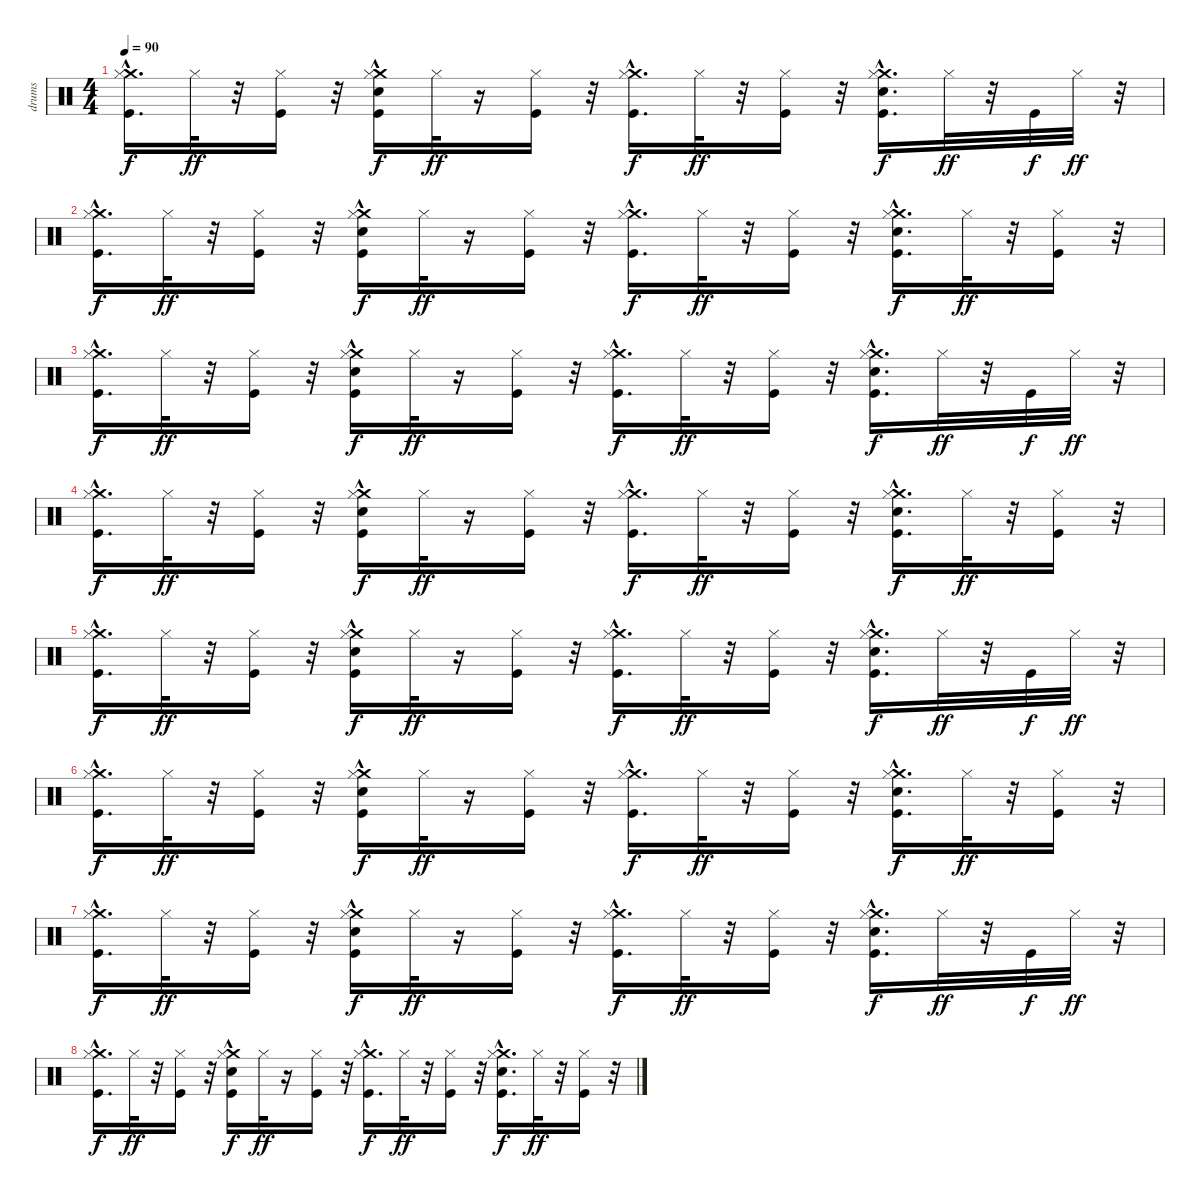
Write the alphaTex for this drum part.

\track ("drums" "drums") {instrument percussion}
\staff {score}
\articulation defaults
\ts (4 4)
\tempo 90
\clef neutral
\ks c
("Kick (hit)" "Crash medium (hit)"{hac} "Hi-Hat (closed)").16{d dy f} "Hi-Hat (closed)".32{dy ff} r.32 ("Kick (hit)" "Hi-Hat (closed)").16 r.32 ("Kick (hit)" "Crash medium (hit)"{hac} "Electric Snare (hit)" "Hi-Hat (closed)").16{dy f} "Hi-Hat (closed)".32{dy ff} r.16 ("Kick (hit)" "Hi-Hat (closed)").16 r.32 ("Kick (hit)" "Crash medium (hit)"{hac} "Hi-Hat (closed)").16{d dy f} "Hi-Hat (closed)".32{dy ff} r.32 ("Kick (hit)" "Hi-Hat (closed)").16 r.32 ("Kick (hit)" "Crash medium (hit)"{hac} "Electric Snare (hit)" "Hi-Hat (closed)").16{d dy f} "Hi-Hat (closed)".32{dy ff} r.32 "Kick (hit)".32{dy f} "Hi-Hat (closed)".32{dy ff} r.32 |
("Kick (hit)" "Crash medium (hit)"{hac} "Hi-Hat (closed)").16{d dy f} "Hi-Hat (closed)".32{dy ff} r.32 ("Kick (hit)" "Hi-Hat (closed)").16 r.32 ("Kick (hit)" "Crash medium (hit)"{hac} "Electric Snare (hit)" "Hi-Hat (closed)").16{dy f} "Hi-Hat (closed)".32{dy ff} r.16 ("Kick (hit)" "Hi-Hat (closed)").16 r.32 ("Kick (hit)" "Crash medium (hit)"{hac} "Hi-Hat (closed)").16{d dy f} "Hi-Hat (closed)".32{dy ff} r.32 ("Kick (hit)" "Hi-Hat (closed)").16 r.32 ("Kick (hit)" "Crash medium (hit)"{hac} "Electric Snare (hit)" "Hi-Hat (closed)").16{d dy f} "Hi-Hat (closed)".32{dy ff} r.32 ("Kick (hit)" "Hi-Hat (closed)").16 r.32 |
("Kick (hit)" "Crash medium (hit)"{hac} "Hi-Hat (closed)").16{d dy f} "Hi-Hat (closed)".32{dy ff} r.32 ("Kick (hit)" "Hi-Hat (closed)").16 r.32 ("Kick (hit)" "Crash medium (hit)"{hac} "Electric Snare (hit)" "Hi-Hat (closed)").16{dy f} "Hi-Hat (closed)".32{dy ff} r.16 ("Kick (hit)" "Hi-Hat (closed)").16 r.32 ("Kick (hit)" "Crash medium (hit)"{hac} "Hi-Hat (closed)").16{d dy f} "Hi-Hat (closed)".32{dy ff} r.32 ("Kick (hit)" "Hi-Hat (closed)").16 r.32 ("Kick (hit)" "Crash medium (hit)"{hac} "Electric Snare (hit)" "Hi-Hat (closed)").16{d dy f} "Hi-Hat (closed)".32{dy ff} r.32 "Kick (hit)".32{dy f} "Hi-Hat (closed)".32{dy ff} r.32 |
("Kick (hit)" "Crash medium (hit)"{hac} "Hi-Hat (closed)").16{d dy f} "Hi-Hat (closed)".32{dy ff} r.32 ("Kick (hit)" "Hi-Hat (closed)").16 r.32 ("Kick (hit)" "Crash medium (hit)"{hac} "Electric Snare (hit)" "Hi-Hat (closed)").16{dy f} "Hi-Hat (closed)".32{dy ff} r.16 ("Kick (hit)" "Hi-Hat (closed)").16 r.32 ("Kick (hit)" "Crash medium (hit)"{hac} "Hi-Hat (closed)").16{d dy f} "Hi-Hat (closed)".32{dy ff} r.32 ("Kick (hit)" "Hi-Hat (closed)").16 r.32 ("Kick (hit)" "Crash medium (hit)"{hac} "Electric Snare (hit)" "Hi-Hat (closed)").16{d dy f} "Hi-Hat (closed)".32{dy ff} r.32 ("Kick (hit)" "Hi-Hat (closed)").16 r.32 |
("Kick (hit)" "Crash medium (hit)"{hac} "Hi-Hat (closed)").16{d dy f} "Hi-Hat (closed)".32{dy ff} r.32 ("Kick (hit)" "Hi-Hat (closed)").16 r.32 ("Kick (hit)" "Crash medium (hit)"{hac} "Electric Snare (hit)" "Hi-Hat (closed)").16{dy f} "Hi-Hat (closed)".32{dy ff} r.16 ("Kick (hit)" "Hi-Hat (closed)").16 r.32 ("Kick (hit)" "Crash medium (hit)"{hac} "Hi-Hat (closed)").16{d dy f} "Hi-Hat (closed)".32{dy ff} r.32 ("Kick (hit)" "Hi-Hat (closed)").16 r.32 ("Kick (hit)" "Crash medium (hit)"{hac} "Electric Snare (hit)" "Hi-Hat (closed)").16{d dy f} "Hi-Hat (closed)".32{dy ff} r.32 "Kick (hit)".32{dy f} "Hi-Hat (closed)".32{dy ff} r.32 |
("Kick (hit)" "Crash medium (hit)"{hac} "Hi-Hat (closed)").16{d dy f} "Hi-Hat (closed)".32{dy ff} r.32 ("Kick (hit)" "Hi-Hat (closed)").16 r.32 ("Kick (hit)" "Crash medium (hit)"{hac} "Electric Snare (hit)" "Hi-Hat (closed)").16{dy f} "Hi-Hat (closed)".32{dy ff} r.16 ("Kick (hit)" "Hi-Hat (closed)").16 r.32 ("Kick (hit)" "Crash medium (hit)"{hac} "Hi-Hat (closed)").16{d dy f} "Hi-Hat (closed)".32{dy ff} r.32 ("Kick (hit)" "Hi-Hat (closed)").16 r.32 ("Kick (hit)" "Crash medium (hit)"{hac} "Electric Snare (hit)" "Hi-Hat (closed)").16{d dy f} "Hi-Hat (closed)".32{dy ff} r.32 ("Kick (hit)" "Hi-Hat (closed)").16 r.32 |
("Kick (hit)" "Crash medium (hit)"{hac} "Hi-Hat (closed)").16{d dy f} "Hi-Hat (closed)".32{dy ff} r.32 ("Kick (hit)" "Hi-Hat (closed)").16 r.32 ("Kick (hit)" "Crash medium (hit)"{hac} "Electric Snare (hit)" "Hi-Hat (closed)").16{dy f} "Hi-Hat (closed)".32{dy ff} r.16 ("Kick (hit)" "Hi-Hat (closed)").16 r.32 ("Kick (hit)" "Crash medium (hit)"{hac} "Hi-Hat (closed)").16{d dy f} "Hi-Hat (closed)".32{dy ff} r.32 ("Kick (hit)" "Hi-Hat (closed)").16 r.32 ("Kick (hit)" "Crash medium (hit)"{hac} "Electric Snare (hit)" "Hi-Hat (closed)").16{d dy f} "Hi-Hat (closed)".32{dy ff} r.32 "Kick (hit)".32{dy f} "Hi-Hat (closed)".32{dy ff} r.32 |
("Kick (hit)" "Crash medium (hit)"{hac} "Hi-Hat (closed)").16{d dy f} "Hi-Hat (closed)".32{dy ff} r.32 ("Kick (hit)" "Hi-Hat (closed)").16 r.32 ("Kick (hit)" "Crash medium (hit)"{hac} "Electric Snare (hit)" "Hi-Hat (closed)").16{dy f} "Hi-Hat (closed)".32{dy ff} r.16 ("Kick (hit)" "Hi-Hat (closed)").16 r.32 ("Kick (hit)" "Crash medium (hit)"{hac} "Hi-Hat (closed)").16{d dy f} "Hi-Hat (closed)".32{dy ff} r.32 ("Kick (hit)" "Hi-Hat (closed)").16 r.32 ("Kick (hit)" "Crash medium (hit)"{hac} "Electric Snare (hit)" "Hi-Hat (closed)").16{d dy f} "Hi-Hat (closed)".32{dy ff} r.32 ("Kick (hit)" "Hi-Hat (closed)").16 r.32
